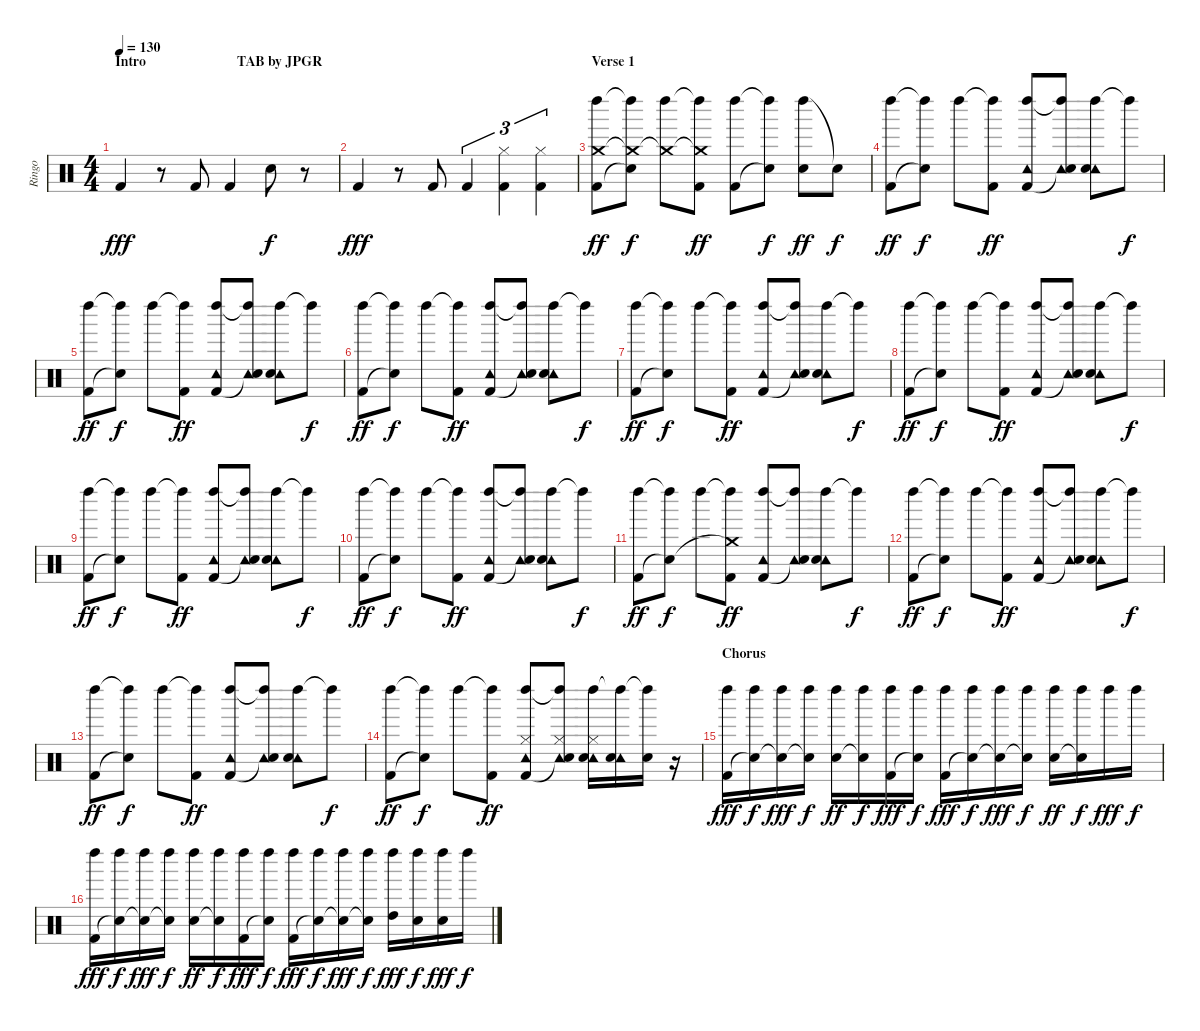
\track ("Ringo" "Ringo") {instrument percussion}
\staff {score}
\articulation defaults
\ts (4 4)
\section ("" "Intro                          TAB by JPGR")
\tempo 130
\clef neutral
\ks c "Kick (hit) 2".4{dy fff}
r.8 "Kick (hit) 2".8 "Kick (hit) 2".4 "Snare (hit) 2".8{dy f} r.8 |
"Kick (hit) 2".4{dy fff} r.8 "Kick (hit) 2".8 "Kick (hit) 2".4{tu (3 2)} ("Hi-Hat (closed)" "Kick (hit) 2").4{tu (3 2)} ("Hi-Hat (closed)" "Kick (hit) 2").4{tu (3 2)} |
\section ("" "Verse 1")
("Left Maraca (hit)" "Crash medium (hit)" "Kick (hit) 2").8{dy ff} ("Left Maraca (hit)"{t} "Crash medium (hit)"{t} "Snare (hit)"{t}).8{dy f} ("Left Maraca (hit)" "Crash medium (hit)"{t}).8 ("Left Maraca (hit)"{t} "Crash medium (hit)"{t} "Kick (hit) 2").8{dy ff} ("Left Maraca (hit)" "Kick (hit) 2").8 ("Left Maraca (hit)"{t} "Snare (hit)"{t}).8{dy f} ("Left Maraca (hit)" "Electric Snare (hit)").8{dy ff} "Snare (hit)"{t}.8{dy f} |
("Left Maraca (hit)" "Kick (hit) 2").8{dy ff} ("Left Maraca (hit)"{t} "Snare (hit)"{t}).8{dy f} "Left Maraca (hit)".8 ("Left Maraca (hit)"{t} "Kick (hit) 2").8{dy ff} ("Left Maraca (hit)" "Tambourine (hit)" "Kick (hit) 2").8 ("Left Maraca (hit)"{t} "Tambourine (hit)" "Snare (hit)"{t}).8 ("Left Maraca (hit)" "Tambourine (hit)" "Electric Snare (hit)").8 "Left Maraca (hit)"{t}.8{dy f} |
("Left Maraca (hit)" "Kick (hit) 2").8{dy ff} ("Left Maraca (hit)"{t} "Snare (hit)"{t}).8{dy f} "Left Maraca (hit)".8 ("Left Maraca (hit)"{t} "Kick (hit) 2").8{dy ff} ("Left Maraca (hit)" "Tambourine (hit)" "Kick (hit) 2").8 ("Left Maraca (hit)"{t} "Tambourine (hit)" "Snare (hit)"{t}).8 ("Left Maraca (hit)" "Tambourine (hit)" "Electric Snare (hit)").8 "Left Maraca (hit)"{t}.8{dy f} |
("Left Maraca (hit)" "Kick (hit) 2").8{dy ff} ("Left Maraca (hit)"{t} "Snare (hit)"{t}).8{dy f} "Left Maraca (hit)".8 ("Left Maraca (hit)"{t} "Kick (hit) 2").8{dy ff} ("Left Maraca (hit)" "Tambourine (hit)" "Kick (hit) 2").8 ("Left Maraca (hit)"{t} "Tambourine (hit)" "Snare (hit)"{t}).8 ("Left Maraca (hit)" "Tambourine (hit)" "Electric Snare (hit)").8 "Left Maraca (hit)"{t}.8{dy f} |
("Left Maraca (hit)" "Kick (hit) 2").8{dy ff} ("Left Maraca (hit)"{t} "Snare (hit)"{t}).8{dy f} "Left Maraca (hit)".8 ("Left Maraca (hit)"{t} "Kick (hit) 2").8{dy ff} ("Left Maraca (hit)" "Tambourine (hit)" "Kick (hit) 2").8 ("Left Maraca (hit)"{t} "Tambourine (hit)" "Snare (hit)"{t}).8 ("Left Maraca (hit)" "Tambourine (hit)" "Electric Snare (hit)").8 "Left Maraca (hit)"{t}.8{dy f} |
("Left Maraca (hit)" "Kick (hit) 2").8{dy ff} ("Left Maraca (hit)"{t} "Snare (hit)"{t}).8{dy f} "Left Maraca (hit)".8 ("Left Maraca (hit)"{t} "Kick (hit) 2").8{dy ff} ("Left Maraca (hit)" "Tambourine (hit)" "Kick (hit) 2").8 ("Left Maraca (hit)"{t} "Tambourine (hit)" "Snare (hit)"{t}).8 ("Left Maraca (hit)" "Tambourine (hit)" "Electric Snare (hit)").8 "Left Maraca (hit)"{t}.8{dy f} |
("Left Maraca (hit)" "Kick (hit) 2").8{dy ff} ("Left Maraca (hit)"{t} "Snare (hit)"{t}).8{dy f} "Left Maraca (hit)".8 ("Left Maraca (hit)"{t} "Kick (hit) 2").8{dy ff} ("Left Maraca (hit)" "Tambourine (hit)" "Kick (hit) 2").8 ("Left Maraca (hit)"{t} "Tambourine (hit)" "Snare (hit)"{t}).8 ("Left Maraca (hit)" "Tambourine (hit)" "Electric Snare (hit)").8 "Left Maraca (hit)"{t}.8{dy f} |
("Left Maraca (hit)" "Kick (hit) 2").8{dy ff} ("Left Maraca (hit)"{t} "Snare (hit)"{t}).8{dy f} "Left Maraca (hit)".8 ("Left Maraca (hit)"{t} "Kick (hit) 2").8{dy ff} ("Left Maraca (hit)" "Tambourine (hit)" "Kick (hit) 2").8 ("Left Maraca (hit)"{t} "Tambourine (hit)" "Snare (hit)"{t}).8 ("Left Maraca (hit)" "Tambourine (hit)" "Electric Snare (hit)").8 "Left Maraca (hit)"{t}.8{dy f} |
("Left Maraca (hit)" "Kick (hit) 2").8{dy ff} ("Left Maraca (hit)"{t} "Snare (hit)"{t}).8{dy f} "Left Maraca (hit)".8 ("Left Maraca (hit)"{t} "Crash medium (hit)"{t} "Kick (hit) 2").8{dy ff} ("Left Maraca (hit)" "Tambourine (hit)" "Kick (hit) 2").8 ("Left Maraca (hit)"{t} "Tambourine (hit)" "Snare (hit)"{t}).8 ("Left Maraca (hit)" "Tambourine (hit)" "Electric Snare (hit)").8 "Left Maraca (hit)"{t}.8{dy f} |
("Left Maraca (hit)" "Kick (hit) 2").8{dy ff} ("Left Maraca (hit)"{t} "Snare (hit)"{t}).8{dy f} "Left Maraca (hit)".8 ("Left Maraca (hit)"{t} "Kick (hit) 2").8{dy ff} ("Left Maraca (hit)" "Tambourine (hit)" "Kick (hit) 2").8 ("Left Maraca (hit)"{t} "Tambourine (hit)" "Snare (hit)"{t}).8 ("Left Maraca (hit)" "Tambourine (hit)" "Electric Snare (hit)").8 "Left Maraca (hit)"{t}.8{dy f} |
("Left Maraca (hit)" "Kick (hit) 2").8{dy ff} ("Left Maraca (hit)"{t} "Snare (hit)"{t}).8{dy f} "Left Maraca (hit)".8 ("Left Maraca (hit)"{t} "Kick (hit) 2").8{dy ff} ("Left Maraca (hit)" "Tambourine (hit)" "Kick (hit) 2").8 ("Left Maraca (hit)"{t} "Tambourine (hit)" "Snare (hit)"{t}).8 ("Left Maraca (hit)" "Tambourine (hit)" "Electric Snare (hit)").8 "Left Maraca (hit)"{t}.8{dy f} |
("Left Maraca (hit)" "Kick (hit) 2").8{dy ff} ("Left Maraca (hit)"{t} "Snare (hit)"{t}).8{dy f} "Left Maraca (hit)".8 ("Left Maraca (hit)"{t} "Kick (hit) 2").8{dy ff} ("Left Maraca (hit)" "Tambourine (hit)" "Hi-Hat (closed)" "Kick (hit) 2").8 ("Left Maraca (hit)"{t} "Tambourine (hit)" "Hi-Hat (closed)" "Snare (hit)"{t}).8 ("Left Maraca (hit)" "Tambourine (hit)" "Hi-Hat (closed)" "Electric Snare (hit)").16 ("Left Maraca (hit)"{t} "Tambourine (hit)" "Electric Snare (hit)").16 ("Left Maraca (hit)"{t} "Electric Snare (hit)").16 r.16 |
\section ("" "Chorus")
("Left Maraca (hit)" "Kick (hit) 2").16{dy fff} ("Left Maraca (hit)" "Snare (hit)"{t}).16{dy f} ("Left Maraca (hit)" "Snare (hit)"{t}).16{dy fff} ("Left Maraca (hit)" "Snare (hit)"{t}).16{dy f} ("Left Maraca (hit)" "Electric Snare (hit)").16{dy ff} ("Left Maraca (hit)" "Snare (hit)"{t}).16{dy f} ("Left Maraca (hit)" "Kick (hit) 2").16{dy fff} ("Left Maraca (hit)" "Snare (hit)"{t}).16{dy f} ("Left Maraca (hit)" "Kick (hit) 2").16{dy fff} ("Left Maraca (hit)" "Snare (hit)"{t}).16{dy f} ("Left Maraca (hit)" "Snare (hit)"{t}).16{dy fff} ("Left Maraca (hit)" "Snare (hit)"{t}).16{dy f} ("Left Maraca (hit)" "Electric Snare (hit)").16{dy ff} ("Left Maraca (hit)" "Snare (hit)"{t}).16{dy f} "Left Maraca (hit)".16{dy fff} "Left Maraca (hit)".16{dy f} |
("Left Maraca (hit)" "Kick (hit) 2").16{dy fff} ("Left Maraca (hit)" "Snare (hit)"{t}).16{dy f} ("Left Maraca (hit)" "Snare (hit)"{t}).16{dy fff} ("Left Maraca (hit)" "Snare (hit)"{t}).16{dy f} ("Left Maraca (hit)" "Electric Snare (hit)").16{dy ff} ("Left Maraca (hit)" "Snare (hit)"{t}).16{dy f} ("Left Maraca (hit)" "Kick (hit) 2").16{dy fff} ("Left Maraca (hit)" "Snare (hit)"{t}).16{dy f} ("Left Maraca (hit)" "Kick (hit) 2").16{dy fff} ("Left Maraca (hit)" "Snare (hit)"{t}).16{dy f} ("Left Maraca (hit)" "Snare (hit)"{t}).16{dy fff} ("Left Maraca (hit)" "Snare (hit)"{t}).16{dy f} ("Left Maraca (hit)" "High Tom (hit)").16{dy fff} ("Left Maraca (hit)" "Electric Snare (hit)").16{dy f} ("Left Maraca (hit)" "Electric Snare (hit)").16{dy fff} "Left Maraca (hit)".16{dy f}
